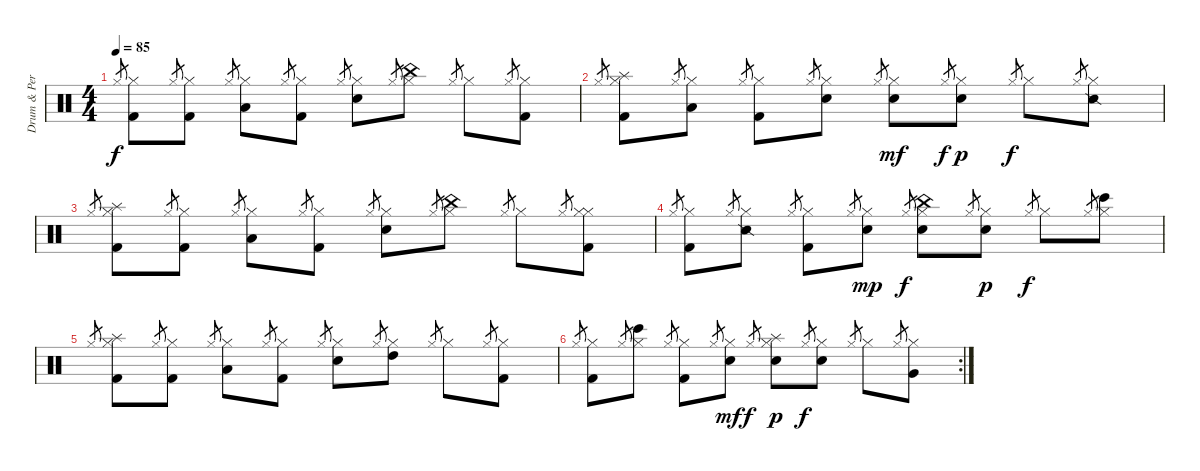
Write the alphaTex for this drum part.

\track ("Drum & Percussions" "Drum & Per") {instrument percussion}
\staff {score}
\articulation defaults
\ts (4 4)
\tempo 85
\clef neutral
\ks c "Hi-Hat (closed)".8{gr dy f}
("Hi-Hat (closed)" "Kick (hit) 2").8 "Hi-Hat (closed)".8{gr} ("Hi-Hat (closed)" "Kick (hit) 2").8 "Hi-Hat (closed)".8{gr} ("Hi-Hat (closed)" "Low Tom (hit)").8 "Hi-Hat (closed)".8{gr} ("Hi-Hat (closed)" "Kick (hit) 2").8 "Hi-Hat (closed)".8{gr} ("Hi-Hat (closed)" "Electric Snare (hit)").8 "Hi-Hat (closed)".8{gr} ("Hi-Hat (closed)" "China (hit)").8 "Hi-Hat (closed)".8{gr} "Hi-Hat (closed)".8 "Hi-Hat (closed)".8{gr} ("Hi-Hat (closed)" "Kick (hit) 2").8 |
"Hi-Hat (closed)".8{gr} ("Hi-Hat (closed)" "Splash (hit)" "Kick (hit) 2").8 "Hi-Hat (closed)".8{gr} ("Hi-Hat (closed)" "Low Tom (hit)").8 "Hi-Hat (closed)".8{gr} ("Hi-Hat (closed)" "Kick (hit) 2").8 "Hi-Hat (closed)".8{gr} ("Hi-Hat (closed)" "Electric Snare (hit)").8 "Hi-Hat (closed)".8{gr} ("Hi-Hat (closed)" "Electric Snare (hit)").8{dy mf} "Hi-Hat (closed)".8{gr dy f} ("Hi-Hat (closed)" "Electric Snare (hit)").8{dy p} "Hi-Hat (closed)".8{gr dy f} "Hi-Hat (closed)".8 "Hi-Hat (closed)".8{gr} ("Hi-Hat (closed)" "Snare (side stick) 2").8 |
"Hi-Hat (closed)".8{gr} ("Hi-Hat (closed)" "Splash (hit)" "Kick (hit) 2").8 "Hi-Hat (closed)".8{gr} ("Hi-Hat (closed)" "Kick (hit) 2").8 "Hi-Hat (closed)".8{gr} ("Hi-Hat (closed)" "Low Tom (hit)").8 "Hi-Hat (closed)".8{gr} ("Hi-Hat (closed)" "Kick (hit) 2").8 "Hi-Hat (closed)".8{gr} ("Hi-Hat (closed)" "Electric Snare (hit)").8 "Hi-Hat (closed)".8{gr} ("Hi-Hat (closed)" "China (hit)").8 "Hi-Hat (closed)".8{gr} "Hi-Hat (closed)".8 "Hi-Hat (closed)".8{gr} ("Hi-Hat (closed)" "Hi-Hat (closed)" "Kick (hit) 2").8 |
"Hi-Hat (closed)".8{gr} ("Hi-Hat (closed)" "Kick (hit) 2").8 "Hi-Hat (closed)".8{gr} ("Hi-Hat (closed)" "Snare (side stick) 2").8 "Hi-Hat (closed)".8{gr} ("Hi-Hat (closed)" "Kick (hit) 2").8 "Hi-Hat (closed)".8{gr} ("Hi-Hat (closed)" "Electric Snare (hit)").8{dy mp} "Hi-Hat (closed)".8{gr dy f} ("Hi-Hat (closed)" "China (hit)" "Electric Snare (hit)").8 "Hi-Hat (closed)".8{gr} ("Hi-Hat (closed)" "Electric Snare (hit)").8{dy p} "Hi-Hat (closed)".8{gr dy f} "Hi-Hat (closed)".8 "Hi-Hat (closed)".8{gr} ("Hi-Hat (closed)" "Bongo High (hit)").8 |
"Hi-Hat (closed)".8{gr} ("Hi-Hat (closed)" "Splash (hit)" "Kick (hit) 2").8 "Hi-Hat (closed)".8{gr} ("Hi-Hat (closed)" "Kick (hit) 2").8 "Hi-Hat (closed)".8{gr} ("Hi-Hat (closed)" "Low Tom (hit)").8 "Hi-Hat (closed)".8{gr} ("Hi-Hat (closed)" "Kick (hit) 2").8 "Hi-Hat (closed)".8{gr} ("Hi-Hat (closed)" "Electric Snare (hit)").8 "Hi-Hat (closed)".8{gr} ("Hi-Hat (closed)" "High Tom (hit)").8 "Hi-Hat (closed)".8{gr} "Hi-Hat (closed)".8 "Hi-Hat (closed)".8{gr} ("Hi-Hat (closed)" "Kick (hit) 2").8 |
\rc 2 "Hi-Hat (closed)".8{gr}
("Hi-Hat (closed)" "Kick (hit) 2").8 "Hi-Hat (closed)".8{gr} ("Hi-Hat (closed)" "Bongo High (hit)").8 "Hi-Hat (closed)".8{gr} ("Hi-Hat (closed)" "Kick (hit) 2").8 "Hi-Hat (closed)".8{gr} ("Hi-Hat (closed)" "Electric Snare (hit)").8{dy mf} "Hi-Hat (closed)".8{gr dy f} ("Hi-Hat (closed)" "Splash (hit)" "Electric Snare (hit)").8{dy p} "Hi-Hat (closed)".8{gr dy f} ("Hi-Hat (closed)" "Electric Snare (hit)").8 "Hi-Hat (closed)".8{gr} "Hi-Hat (closed)".8 "Hi-Hat (closed)".8{gr} ("Hi-Hat (closed)" "Very Low Tom (hit)").8
